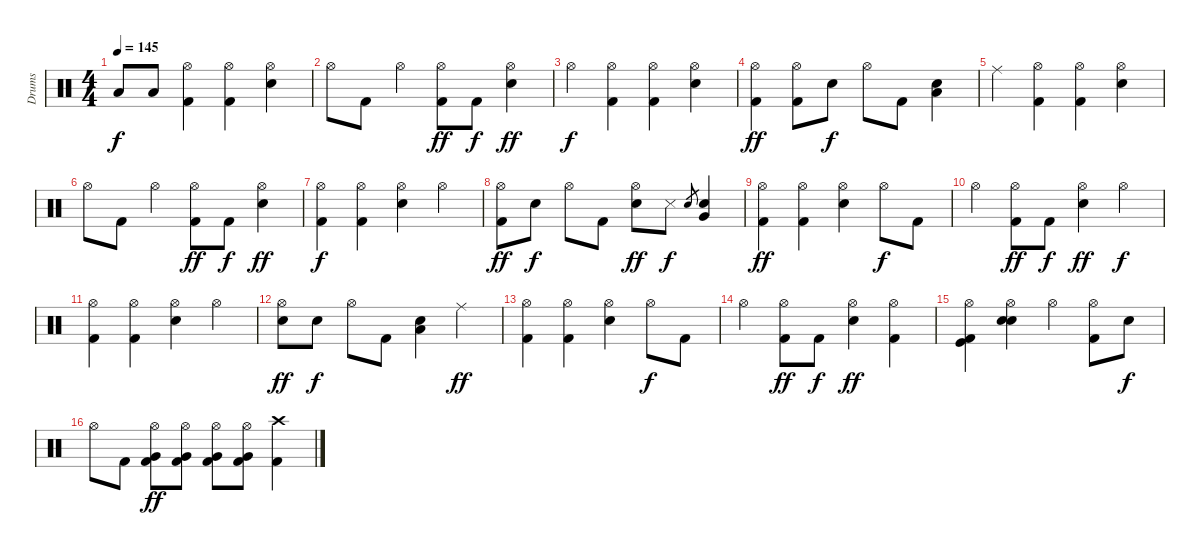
\track ("Drums" "Drums") {instrument percussion}
\staff {score}
\articulation defaults
\ts (4 4)
\tempo 145
\clef neutral
\ks c "Low Tom (hit)".8{dy f} "Low Tom (hit)".8
("Hi-Hat (open)" "Kick (hit) 2").4 ("Hi-Hat (open)" "Kick (hit) 2").4 ("Hi-Hat (open)" "Electric Snare (hit)").4 |
"Hi-Hat (open)".8 "Kick (hit) 2".8 "Hi-Hat (open)".4 ("Hi-Hat (open)" "Kick (hit) 2").8{dy ff} "Kick (hit) 2".8{dy f} ("Hi-Hat (open)" "Electric Snare (hit)").4{dy ff} |
"Hi-Hat (open)".4{dy f} ("Hi-Hat (open)" "Kick (hit) 2").4 ("Hi-Hat (open)" "Kick (hit) 2").4 ("Hi-Hat (open)" "Electric Snare (hit)").4 |
("Hi-Hat (open)" "Kick (hit) 2").4{dy ff} ("Hi-Hat (open)" "Kick (hit) 2").8 "Electric Snare (hit)".8{dy f} "Hi-Hat (open)".8 "Kick (hit) 2".8 ("Low Tom (hit)" "Electric Snare (hit)").4 |
"Ride (middle)".4 ("Hi-Hat (open)" "Kick (hit) 2").4 ("Hi-Hat (open)" "Kick (hit) 2").4 ("Hi-Hat (open)" "Electric Snare (hit)").4 |
"Hi-Hat (open)".8 "Kick (hit) 2".8 "Hi-Hat (open)".4 ("Hi-Hat (open)" "Kick (hit) 2").8{dy ff} "Kick (hit) 2".8{dy f} ("Hi-Hat (open)" "Electric Snare (hit)").4{dy ff} |
("Hi-Hat (open)" "Kick (hit) 2").4{dy f} ("Hi-Hat (open)" "Kick (hit) 2").4 ("Hi-Hat (open)" "Electric Snare (hit)").4 "Hi-Hat (open)".4 |
("Hi-Hat (open)" "Kick (hit) 2").8{dy ff} "Electric Snare (hit)".8{dy f} "Hi-Hat (open)".8 "Kick (hit) 2".8 ("Hi-Hat (open)" "Electric Snare (hit)").8{dy ff} "Snare (side stick) 3".8{dy f} "Electric Snare (hit)".8{gr} ("Very Low Tom (hit)" "Electric Snare (hit)").4 |
("Hi-Hat (open)" "Kick (hit) 2").4{dy ff} ("Hi-Hat (open)" "Kick (hit) 2").4 ("Hi-Hat (open)" "Electric Snare (hit)").4 "Hi-Hat (open)".8{dy f} "Kick (hit) 2".8 |
"Hi-Hat (open)".4 ("Hi-Hat (open)" "Kick (hit) 2").8{dy ff} "Kick (hit) 2".8{dy f} ("Hi-Hat (open)" "Electric Snare (hit)").4{dy ff} "Hi-Hat (open)".4{dy f} |
("Hi-Hat (open)" "Kick (hit) 2").4 ("Hi-Hat (open)" "Kick (hit) 2").4 ("Hi-Hat (open)" "Electric Snare (hit)").4 "Hi-Hat (open)".4 |
("Hi-Hat (open)" "Snare (hit)").8{dy ff} "Electric Snare (hit)".8{dy f} "Hi-Hat (open)".8 "Kick (hit) 2".8 ("Low Tom (hit)" "Electric Snare (hit)").4 "Ride (middle)".4{dy ff} |
("Hi-Hat (open)" "Kick (hit) 2").4 ("Hi-Hat (open)" "Kick (hit) 2").4 ("Hi-Hat (open)" "Electric Snare (hit)").4 "Hi-Hat (open)".8{dy f} "Kick (hit) 2".8 |
"Hi-Hat (open)".4 ("Hi-Hat (open)" "Kick (hit) 2").8{dy ff} "Kick (hit) 2".8{dy f} ("Hi-Hat (open)" "Electric Snare (hit)").4{dy ff} ("Hi-Hat (open)" "Kick (hit) 2").4 |
("Kick (hit)" "Hi-Hat (open)" "Kick (hit) 2").4 ("Electric Snare (hit)" "Hi-Hat (open)" "Electric Snare (hit)").4 "Hi-Hat (open)".4 ("Hi-Hat (open)" "Kick (hit) 2").8 "Electric Snare (hit)".8{dy f} |
"Hi-Hat (open)".8 "Kick (hit) 2".8 ("Hi-Hat (open)" "Very Low Tom (hit)" "Kick (hit) 2").8{dy ff} ("Hi-Hat (open)" "Very Low Tom (hit)" "Kick (hit) 2").8 ("Hi-Hat (open)" "Very Low Tom (hit)" "Kick (hit) 2").8 ("Hi-Hat (open)" "Very Low Tom (hit)" "Kick (hit) 2").8 ("Crash high (hit)" "Kick (hit) 2").4
